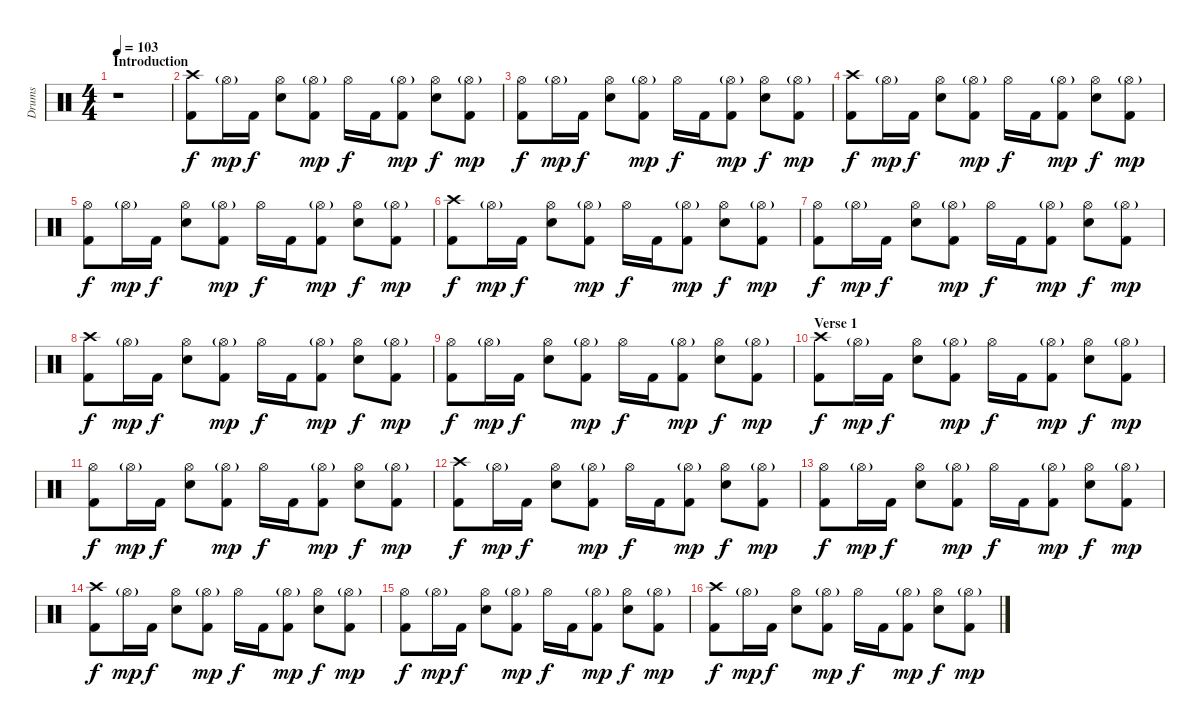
\track ("Drums" "Drums") {instrument percussion}
\staff {score}
\articulation defaults
\ts (4 4)
\section ("" "Introduction")
\tempo 103
\clef neutral
\ks c
r.1{dy f} |
("Crash high (hit)" "Kick (hit) 2").8 "Hi-Hat (open)"{g}.16{dy mp} "Kick (hit) 2".16{dy f} ("Hi-Hat (open)" "Snare (hit) 2").8 ("Hi-Hat (open)"{g} "Kick (hit) 2").8{dy mp} "Hi-Hat (open)".16{dy f} "Kick (hit) 2".16 ("Hi-Hat (open)"{g} "Kick (hit) 2").8{dy mp} ("Hi-Hat (open)" "Snare (hit) 2").8{dy f} ("Hi-Hat (open)"{g} "Kick (hit) 2").8{dy mp} |
("Hi-Hat (open)" "Kick (hit) 2").8{dy f} "Hi-Hat (open)"{g}.16{dy mp} "Kick (hit) 2".16{dy f} ("Hi-Hat (open)" "Snare (hit) 2").8 ("Hi-Hat (open)"{g} "Kick (hit) 2").8{dy mp} "Hi-Hat (open)".16{dy f} "Kick (hit) 2".16 ("Hi-Hat (open)"{g} "Kick (hit) 2").8{dy mp} ("Hi-Hat (open)" "Snare (hit) 2").8{dy f} ("Hi-Hat (open)"{g} "Kick (hit) 2").8{dy mp} |
("Crash high (hit)" "Kick (hit) 2").8{dy f} "Hi-Hat (open)"{g}.16{dy mp} "Kick (hit) 2".16{dy f} ("Hi-Hat (open)" "Snare (hit) 2").8 ("Hi-Hat (open)"{g} "Kick (hit) 2").8{dy mp} "Hi-Hat (open)".16{dy f} "Kick (hit) 2".16 ("Hi-Hat (open)"{g} "Kick (hit) 2").8{dy mp} ("Hi-Hat (open)" "Snare (hit) 2").8{dy f} ("Hi-Hat (open)"{g} "Kick (hit) 2").8{dy mp} |
("Hi-Hat (open)" "Kick (hit) 2").8{dy f} "Hi-Hat (open)"{g}.16{dy mp} "Kick (hit) 2".16{dy f} ("Hi-Hat (open)" "Snare (hit) 2").8 ("Hi-Hat (open)"{g} "Kick (hit) 2").8{dy mp} "Hi-Hat (open)".16{dy f} "Kick (hit) 2".16 ("Hi-Hat (open)"{g} "Kick (hit) 2").8{dy mp} ("Hi-Hat (open)" "Snare (hit) 2").8{dy f} ("Hi-Hat (open)"{g} "Kick (hit) 2").8{dy mp} |
("Crash high (hit)" "Kick (hit) 2").8{dy f} "Hi-Hat (open)"{g}.16{dy mp} "Kick (hit) 2".16{dy f} ("Hi-Hat (open)" "Snare (hit) 2").8 ("Hi-Hat (open)"{g} "Kick (hit) 2").8{dy mp} "Hi-Hat (open)".16{dy f} "Kick (hit) 2".16 ("Hi-Hat (open)"{g} "Kick (hit) 2").8{dy mp} ("Hi-Hat (open)" "Snare (hit) 2").8{dy f} ("Hi-Hat (open)"{g} "Kick (hit) 2").8{dy mp} |
("Hi-Hat (open)" "Kick (hit) 2").8{dy f} "Hi-Hat (open)"{g}.16{dy mp} "Kick (hit) 2".16{dy f} ("Hi-Hat (open)" "Snare (hit) 2").8 ("Hi-Hat (open)"{g} "Kick (hit) 2").8{dy mp} "Hi-Hat (open)".16{dy f} "Kick (hit) 2".16 ("Hi-Hat (open)"{g} "Kick (hit) 2").8{dy mp} ("Hi-Hat (open)" "Snare (hit) 2").8{dy f} ("Hi-Hat (open)"{g} "Kick (hit) 2").8{dy mp} |
("Crash high (hit)" "Kick (hit) 2").8{dy f} "Hi-Hat (open)"{g}.16{dy mp} "Kick (hit) 2".16{dy f} ("Hi-Hat (open)" "Snare (hit) 2").8 ("Hi-Hat (open)"{g} "Kick (hit) 2").8{dy mp} "Hi-Hat (open)".16{dy f} "Kick (hit) 2".16 ("Hi-Hat (open)"{g} "Kick (hit) 2").8{dy mp} ("Hi-Hat (open)" "Snare (hit) 2").8{dy f} ("Hi-Hat (open)"{g} "Kick (hit) 2").8{dy mp} |
("Hi-Hat (open)" "Kick (hit) 2").8{dy f} "Hi-Hat (open)"{g}.16{dy mp} "Kick (hit) 2".16{dy f} ("Hi-Hat (open)" "Snare (hit) 2").8 ("Hi-Hat (open)"{g} "Kick (hit) 2").8{dy mp} "Hi-Hat (open)".16{dy f} "Kick (hit) 2".16 ("Hi-Hat (open)"{g} "Kick (hit) 2").8{dy mp} ("Hi-Hat (open)" "Snare (hit) 2").8{dy f} ("Hi-Hat (open)"{g} "Kick (hit) 2").8{dy mp} |
\section ("" "Verse 1")
("Crash high (hit)" "Kick (hit) 2").8{dy f} "Hi-Hat (open)"{g}.16{dy mp} "Kick (hit) 2".16{dy f} ("Hi-Hat (open)" "Snare (hit) 2").8 ("Hi-Hat (open)"{g} "Kick (hit) 2").8{dy mp} "Hi-Hat (open)".16{dy f} "Kick (hit) 2".16 ("Hi-Hat (open)"{g} "Kick (hit) 2").8{dy mp} ("Hi-Hat (open)" "Snare (hit) 2").8{dy f} ("Hi-Hat (open)"{g} "Kick (hit) 2").8{dy mp} |
("Hi-Hat (open)" "Kick (hit) 2").8{dy f} "Hi-Hat (open)"{g}.16{dy mp} "Kick (hit) 2".16{dy f} ("Hi-Hat (open)" "Snare (hit) 2").8 ("Hi-Hat (open)"{g} "Kick (hit) 2").8{dy mp} "Hi-Hat (open)".16{dy f} "Kick (hit) 2".16 ("Hi-Hat (open)"{g} "Kick (hit) 2").8{dy mp} ("Hi-Hat (open)" "Snare (hit) 2").8{dy f} ("Hi-Hat (open)"{g} "Kick (hit) 2").8{dy mp} |
("Crash high (hit)" "Kick (hit) 2").8{dy f} "Hi-Hat (open)"{g}.16{dy mp} "Kick (hit) 2".16{dy f} ("Hi-Hat (open)" "Snare (hit) 2").8 ("Hi-Hat (open)"{g} "Kick (hit) 2").8{dy mp} "Hi-Hat (open)".16{dy f} "Kick (hit) 2".16 ("Hi-Hat (open)"{g} "Kick (hit) 2").8{dy mp} ("Hi-Hat (open)" "Snare (hit) 2").8{dy f} ("Hi-Hat (open)"{g} "Kick (hit) 2").8{dy mp} |
("Hi-Hat (open)" "Kick (hit) 2").8{dy f} "Hi-Hat (open)"{g}.16{dy mp} "Kick (hit) 2".16{dy f} ("Hi-Hat (open)" "Snare (hit) 2").8 ("Hi-Hat (open)"{g} "Kick (hit) 2").8{dy mp} "Hi-Hat (open)".16{dy f} "Kick (hit) 2".16 ("Hi-Hat (open)"{g} "Kick (hit) 2").8{dy mp} ("Hi-Hat (open)" "Snare (hit) 2").8{dy f} ("Hi-Hat (open)"{g} "Kick (hit) 2").8{dy mp} |
("Crash high (hit)" "Kick (hit) 2").8{dy f} "Hi-Hat (open)"{g}.16{dy mp} "Kick (hit) 2".16{dy f} ("Hi-Hat (open)" "Snare (hit) 2").8 ("Hi-Hat (open)"{g} "Kick (hit) 2").8{dy mp} "Hi-Hat (open)".16{dy f} "Kick (hit) 2".16 ("Hi-Hat (open)"{g} "Kick (hit) 2").8{dy mp} ("Hi-Hat (open)" "Snare (hit) 2").8{dy f} ("Hi-Hat (open)"{g} "Kick (hit) 2").8{dy mp} |
("Hi-Hat (open)" "Kick (hit) 2").8{dy f} "Hi-Hat (open)"{g}.16{dy mp} "Kick (hit) 2".16{dy f} ("Hi-Hat (open)" "Snare (hit) 2").8 ("Hi-Hat (open)"{g} "Kick (hit) 2").8{dy mp} "Hi-Hat (open)".16{dy f} "Kick (hit) 2".16 ("Hi-Hat (open)"{g} "Kick (hit) 2").8{dy mp} ("Hi-Hat (open)" "Snare (hit) 2").8{dy f} ("Hi-Hat (open)"{g} "Kick (hit) 2").8{dy mp} |
("Crash high (hit)" "Kick (hit) 2").8{dy f} "Hi-Hat (open)"{g}.16{dy mp} "Kick (hit) 2".16{dy f} ("Hi-Hat (open)" "Snare (hit) 2").8 ("Hi-Hat (open)"{g} "Kick (hit) 2").8{dy mp} "Hi-Hat (open)".16{dy f} "Kick (hit) 2".16 ("Hi-Hat (open)"{g} "Kick (hit) 2").8{dy mp} ("Hi-Hat (open)" "Snare (hit) 2").8{dy f} ("Hi-Hat (open)"{g} "Kick (hit) 2").8{dy mp}
